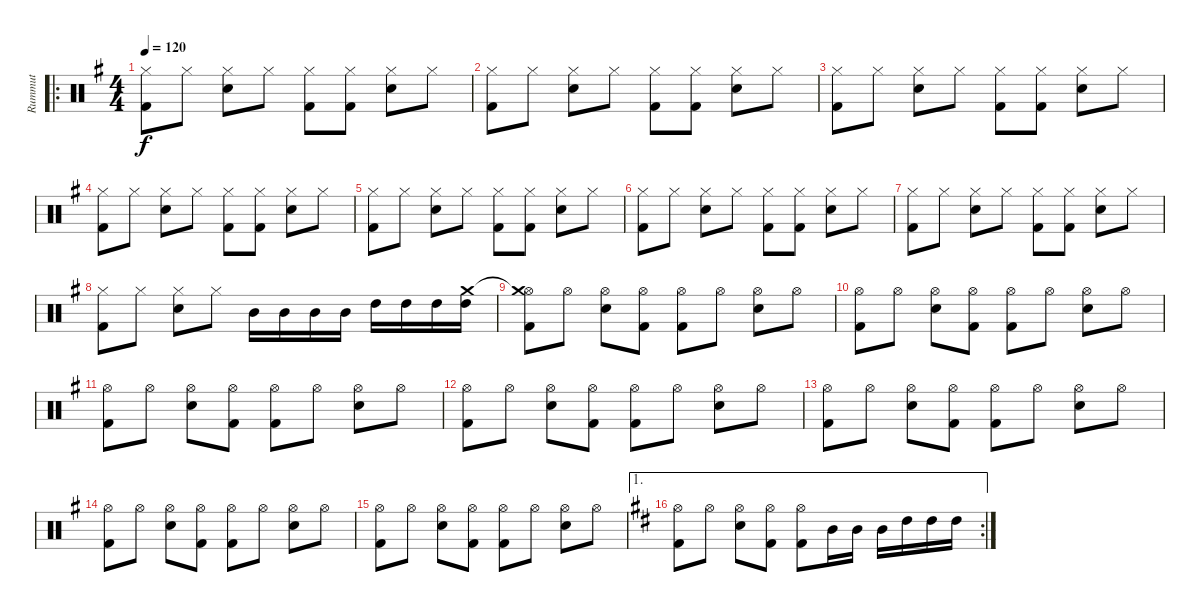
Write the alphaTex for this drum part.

\track ("Rummut" "Rummut") {instrument percussion}
\staff {score}
\articulation defaults
\ro
\ts (4 4)
\tempo 120
\clef neutral
\ks g
("Kick (hit) 2" "Hi-Hat (closed)").8{dy f} "Hi-Hat (closed)".8 ("Snare (hit) 2" "Hi-Hat (closed)").8 "Hi-Hat (closed)".8 ("Kick (hit) 2" "Hi-Hat (closed)").8 ("Kick (hit) 2" "Hi-Hat (closed)").8 ("Snare (hit) 2" "Hi-Hat (closed)").8 "Hi-Hat (closed)".8 |
("Kick (hit) 2" "Hi-Hat (closed)").8 "Hi-Hat (closed)".8 ("Snare (hit) 2" "Hi-Hat (closed)").8 "Hi-Hat (closed)".8 ("Kick (hit) 2" "Hi-Hat (closed)").8 ("Kick (hit) 2" "Hi-Hat (closed)").8 ("Snare (hit) 2" "Hi-Hat (closed)").8 "Hi-Hat (closed)".8 |
("Kick (hit) 2" "Hi-Hat (closed)").8 "Hi-Hat (closed)".8 ("Snare (hit) 2" "Hi-Hat (closed)").8 "Hi-Hat (closed)".8 ("Kick (hit) 2" "Hi-Hat (closed)").8 ("Kick (hit) 2" "Hi-Hat (closed)").8 ("Snare (hit) 2" "Hi-Hat (closed)").8 "Hi-Hat (closed)".8 |
("Kick (hit) 2" "Hi-Hat (closed)").8 "Hi-Hat (closed)".8 ("Snare (hit) 2" "Hi-Hat (closed)").8 "Hi-Hat (closed)".8 ("Kick (hit) 2" "Hi-Hat (closed)").8 ("Kick (hit) 2" "Hi-Hat (closed)").8 ("Snare (hit) 2" "Hi-Hat (closed)").8 "Hi-Hat (closed)".8 |
("Kick (hit) 2" "Hi-Hat (closed)").8 "Hi-Hat (closed)".8 ("Snare (hit) 2" "Hi-Hat (closed)").8 "Hi-Hat (closed)".8 ("Kick (hit) 2" "Hi-Hat (closed)").8 ("Kick (hit) 2" "Hi-Hat (closed)").8 ("Snare (hit) 2" "Hi-Hat (closed)").8 "Hi-Hat (closed)".8 |
("Kick (hit) 2" "Hi-Hat (closed)").8 "Hi-Hat (closed)".8 ("Snare (hit) 2" "Hi-Hat (closed)").8 "Hi-Hat (closed)".8 ("Kick (hit) 2" "Hi-Hat (closed)").8 ("Kick (hit) 2" "Hi-Hat (closed)").8 ("Snare (hit) 2" "Hi-Hat (closed)").8 "Hi-Hat (closed)".8 |
("Kick (hit) 2" "Hi-Hat (closed)").8 "Hi-Hat (closed)".8 ("Snare (hit) 2" "Hi-Hat (closed)").8 "Hi-Hat (closed)".8 ("Kick (hit) 2" "Hi-Hat (closed)").8 ("Kick (hit) 2" "Hi-Hat (closed)").8 ("Snare (hit) 2" "Hi-Hat (closed)").8 "Hi-Hat (closed)".8 |
("Kick (hit) 2" "Hi-Hat (closed)").8 "Hi-Hat (closed)".8 ("Snare (hit) 2" "Hi-Hat (closed)").8 "Hi-Hat (closed)".8 "Mid Tom (hit)".16 "Mid Tom (hit)".16 "Mid Tom (hit)".16 "Mid Tom (hit)".16 "High Tom (hit)".16 "High Tom (hit)".16 "High Tom (hit)".16 ("High Tom (hit)" "Crash medium (hit)").16 |
("Hi-Hat (open)" "Crash medium (hit)"{t} "Kick (hit) 2").8 "Hi-Hat (open)".8 ("Hi-Hat (open)" "Electric Snare (hit)").8 ("Hi-Hat (open)" "Kick (hit) 2").8 ("Hi-Hat (open)" "Kick (hit) 2").8 "Hi-Hat (open)".8 ("Hi-Hat (open)" "Electric Snare (hit)").8 "Hi-Hat (open)".8 |
("Hi-Hat (open)" "Kick (hit) 2").8 "Hi-Hat (open)".8 ("Hi-Hat (open)" "Electric Snare (hit)").8 ("Hi-Hat (open)" "Kick (hit) 2").8 ("Hi-Hat (open)" "Kick (hit) 2").8 "Hi-Hat (open)".8 ("Hi-Hat (open)" "Electric Snare (hit)").8 "Hi-Hat (open)".8 |
("Hi-Hat (open)" "Kick (hit) 2").8 "Hi-Hat (open)".8 ("Hi-Hat (open)" "Electric Snare (hit)").8 ("Hi-Hat (open)" "Kick (hit) 2").8 ("Hi-Hat (open)" "Kick (hit) 2").8 "Hi-Hat (open)".8 ("Hi-Hat (open)" "Electric Snare (hit)").8 "Hi-Hat (open)".8 |
("Hi-Hat (open)" "Kick (hit) 2").8 "Hi-Hat (open)".8 ("Hi-Hat (open)" "Electric Snare (hit)").8 ("Hi-Hat (open)" "Kick (hit) 2").8 ("Hi-Hat (open)" "Kick (hit) 2").8 "Hi-Hat (open)".8 ("Hi-Hat (open)" "Electric Snare (hit)").8 "Hi-Hat (open)".8 |
("Hi-Hat (open)" "Kick (hit) 2").8 "Hi-Hat (open)".8 ("Hi-Hat (open)" "Electric Snare (hit)").8 ("Hi-Hat (open)" "Kick (hit) 2").8 ("Hi-Hat (open)" "Kick (hit) 2").8 "Hi-Hat (open)".8 ("Hi-Hat (open)" "Electric Snare (hit)").8 "Hi-Hat (open)".8 |
("Hi-Hat (open)" "Kick (hit) 2").8 "Hi-Hat (open)".8 ("Hi-Hat (open)" "Electric Snare (hit)").8 ("Hi-Hat (open)" "Kick (hit) 2").8 ("Hi-Hat (open)" "Kick (hit) 2").8 "Hi-Hat (open)".8 ("Hi-Hat (open)" "Electric Snare (hit)").8 "Hi-Hat (open)".8 |
("Hi-Hat (open)" "Kick (hit) 2").8 "Hi-Hat (open)".8 ("Hi-Hat (open)" "Electric Snare (hit)").8 ("Hi-Hat (open)" "Kick (hit) 2").8 ("Hi-Hat (open)" "Kick (hit) 2").8 "Hi-Hat (open)".8 ("Hi-Hat (open)" "Electric Snare (hit)").8 "Hi-Hat (open)".8 |
\ae 1
\rc 2
\ks d
("Hi-Hat (open)" "Kick (hit) 2").8 "Hi-Hat (open)".8 ("Hi-Hat (open)" "Electric Snare (hit)").8 ("Hi-Hat (open)" "Kick (hit) 2").8 ("Hi-Hat (open)" "Kick (hit) 2").8 "Mid Tom (hit)".16 "Mid Tom (hit)".16 "Mid Tom (hit)".16 "High Tom (hit)".16 "High Tom (hit)".16 "High Tom (hit)".16
